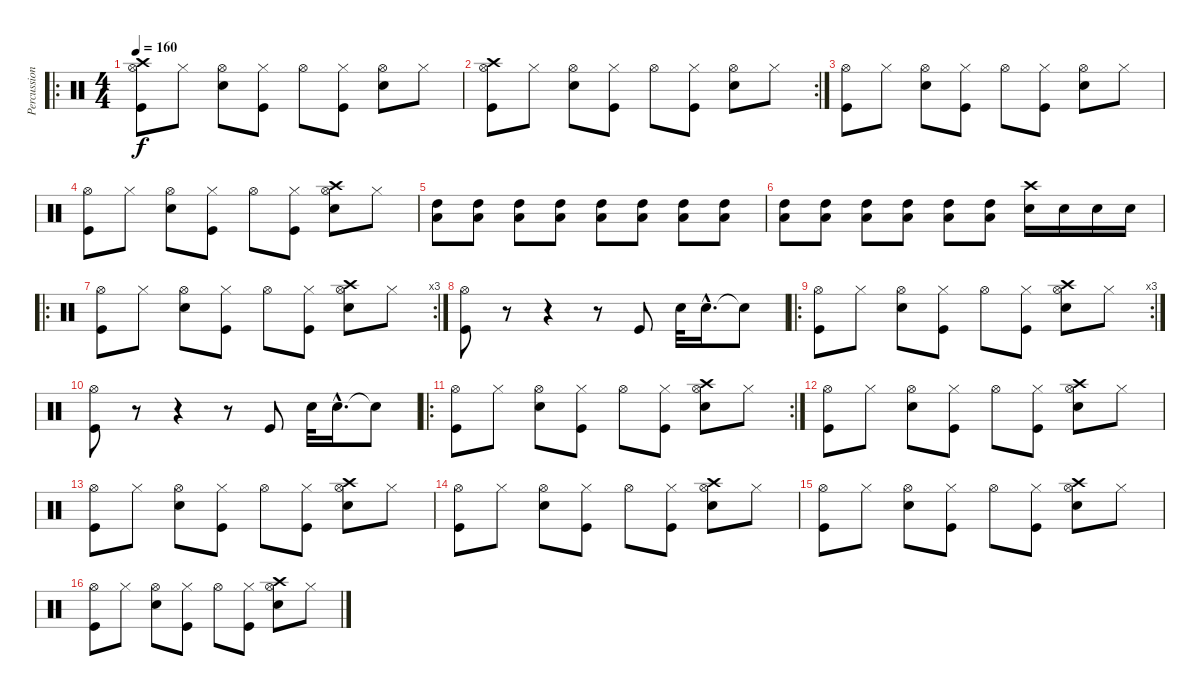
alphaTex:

\track ("Percussions" "Percussion") {instrument percussion}
\staff {score}
\articulation defaults
\ro
\ts (4 4)
\tempo 160
\clef neutral
\ks c
("Hi-Hat (open)" "Kick (hit)" "Crash high (hit)").8{dy f} "Hi-Hat (closed)".8 ("Hi-Hat (open)" "Snare (hit) 2").8 ("Hi-Hat (closed)" "Kick (hit)").8 "Hi-Hat (open)".8 ("Hi-Hat (closed)" "Kick (hit)").8 ("Hi-Hat (open)" "Snare (hit) 2").8 "Hi-Hat (closed)".8 |
\rc 2
("Hi-Hat (open)" "Kick (hit)" "Crash high (hit)").8 "Hi-Hat (closed)".8 ("Hi-Hat (open)" "Snare (hit) 2").8 ("Hi-Hat (closed)" "Kick (hit)").8 "Hi-Hat (open)".8 ("Hi-Hat (closed)" "Kick (hit)").8 ("Hi-Hat (open)" "Snare (hit) 2").8 "Hi-Hat (closed)".8 |
("Hi-Hat (open)" "Kick (hit)").8 "Hi-Hat (closed)".8 ("Hi-Hat (open)" "Snare (hit) 2").8 ("Hi-Hat (closed)" "Kick (hit)").8 "Hi-Hat (open)".8 ("Hi-Hat (closed)" "Kick (hit)").8 ("Hi-Hat (open)" "Snare (hit) 2").8 "Hi-Hat (closed)".8 |
("Hi-Hat (open)" "Kick (hit)").8 "Hi-Hat (closed)".8 ("Hi-Hat (open)" "Snare (hit) 2").8 ("Hi-Hat (closed)" "Kick (hit)").8 "Hi-Hat (open)".8 ("Hi-Hat (closed)" "Kick (hit)").8 ("Hi-Hat (open)" "Snare (hit) 2" "Crash high (hit)").8 "Hi-Hat (closed)".8 |
("Low Floor Tom (hit)" "High Tom (hit)").8 ("Low Floor Tom (hit)" "High Tom (hit)").8 ("Low Floor Tom (hit)" "High Tom (hit)").8 ("Low Floor Tom (hit)" "High Tom (hit)").8 ("Low Floor Tom (hit)" "High Tom (hit)").8 ("Low Floor Tom (hit)" "High Tom (hit)").8 ("Low Floor Tom (hit)" "High Tom (hit)").8 ("Low Floor Tom (hit)" "High Tom (hit)").8 |
("Low Floor Tom (hit)" "High Tom (hit)").8 ("Low Floor Tom (hit)" "High Tom (hit)").8 ("Low Floor Tom (hit)" "High Tom (hit)").8 ("Low Floor Tom (hit)" "High Tom (hit)").8 ("Low Floor Tom (hit)" "High Tom (hit)").8 ("Low Floor Tom (hit)" "High Tom (hit)").8 ("Snare (hit) 2" "Crash high (hit)").16 "Snare (hit) 2".16 "Snare (hit) 2".16 "Snare (hit) 2".16 |
\ro
\rc 3
("Hi-Hat (open)" "Kick (hit)").8 "Hi-Hat (closed)".8 ("Hi-Hat (open)" "Snare (hit) 2").8 ("Hi-Hat (closed)" "Kick (hit)").8 "Hi-Hat (open)".8 ("Hi-Hat (closed)" "Kick (hit)").8 ("Hi-Hat (open)" "Snare (hit) 2" "Crash high (hit)").8 "Hi-Hat (closed)".8 |
("Hi-Hat (open)" "Kick (hit)").8 r.8 r.4 r.8 "Kick (hit)".8 "Snare (hit) 2".32 "Snare (hit) 2"{hac}.16{d} "Snare (hit)"{t}.8 |
\ro
\rc 3
("Hi-Hat (open)" "Kick (hit)").8 "Hi-Hat (closed)".8 ("Hi-Hat (open)" "Snare (hit) 2").8 ("Hi-Hat (closed)" "Kick (hit)").8 "Hi-Hat (open)".8 ("Hi-Hat (closed)" "Kick (hit)").8 ("Hi-Hat (open)" "Snare (hit) 2" "Crash high (hit)").8 "Hi-Hat (closed)".8 |
("Hi-Hat (open)" "Kick (hit)").8 r.8 r.4 r.8 "Kick (hit)".8 "Snare (hit) 2".32 "Snare (hit) 2"{hac}.16{d} "Snare (hit)"{t}.8 |
\ro
\rc 2
("Hi-Hat (open)" "Kick (hit)").8 "Hi-Hat (closed)".8 ("Hi-Hat (open)" "Snare (hit) 2").8 ("Hi-Hat (closed)" "Kick (hit)").8 "Hi-Hat (open)".8 ("Hi-Hat (closed)" "Kick (hit)").8 ("Hi-Hat (open)" "Snare (hit) 2" "Crash high (hit)").8 "Hi-Hat (closed)".8 |
("Hi-Hat (open)" "Kick (hit)").8 "Hi-Hat (closed)".8 ("Hi-Hat (open)" "Snare (hit) 2").8 ("Hi-Hat (closed)" "Kick (hit)").8 "Hi-Hat (open)".8 ("Hi-Hat (closed)" "Kick (hit)").8 ("Hi-Hat (open)" "Snare (hit) 2" "Crash high (hit)").8 "Hi-Hat (closed)".8 |
("Hi-Hat (open)" "Kick (hit)").8 "Hi-Hat (closed)".8 ("Hi-Hat (open)" "Snare (hit) 2").8 ("Hi-Hat (closed)" "Kick (hit)").8 "Hi-Hat (open)".8 ("Hi-Hat (closed)" "Kick (hit)").8 ("Hi-Hat (open)" "Snare (hit) 2" "Crash high (hit)").8 "Hi-Hat (closed)".8 |
("Hi-Hat (open)" "Kick (hit)").8 "Hi-Hat (closed)".8 ("Hi-Hat (open)" "Snare (hit) 2").8 ("Hi-Hat (closed)" "Kick (hit)").8 "Hi-Hat (open)".8 ("Hi-Hat (closed)" "Kick (hit)").8 ("Hi-Hat (open)" "Snare (hit) 2" "Crash high (hit)").8 "Hi-Hat (closed)".8 |
("Hi-Hat (open)" "Kick (hit)").8 "Hi-Hat (closed)".8 ("Hi-Hat (open)" "Snare (hit) 2").8 ("Hi-Hat (closed)" "Kick (hit)").8 "Hi-Hat (open)".8 ("Hi-Hat (closed)" "Kick (hit)").8 ("Hi-Hat (open)" "Snare (hit) 2" "Crash high (hit)").8 "Hi-Hat (closed)".8 |
("Hi-Hat (open)" "Kick (hit)").8 "Hi-Hat (closed)".8 ("Hi-Hat (open)" "Snare (hit) 2").8 ("Hi-Hat (closed)" "Kick (hit)").8 "Hi-Hat (open)".8 ("Hi-Hat (closed)" "Kick (hit)").8 ("Hi-Hat (open)" "Snare (hit) 2" "Crash high (hit)").8 "Hi-Hat (closed)".8
